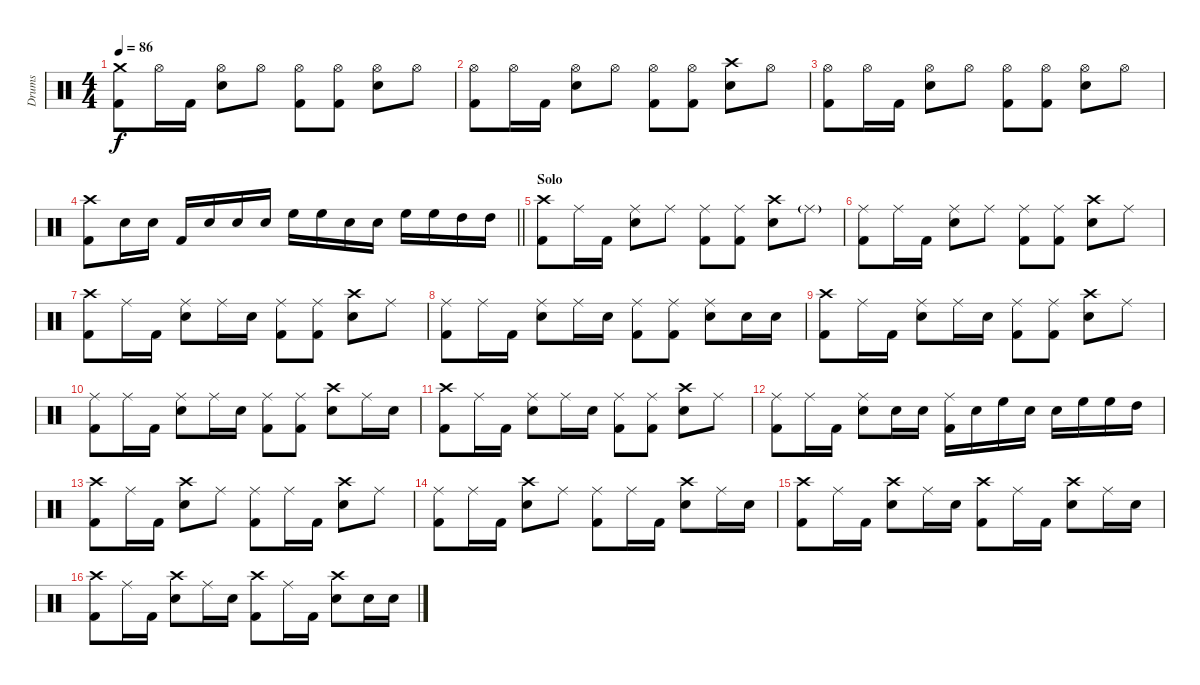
\track ("Drums" "Drums") {instrument percussion}
\staff {score}
\articulation defaults
\ts (4 4)
\tempo 86
\clef neutral
\ks c
("Crash medium (hit)" "Kick (hit) 2").8{dy f} "Hi-Hat (open)".16 "Kick (hit) 2".16 ("Hi-Hat (open)" "Snare (hit) 2").8 "Hi-Hat (open)".8 ("Hi-Hat (open)" "Kick (hit) 2").8 ("Hi-Hat (open)" "Kick (hit) 2").8 ("Hi-Hat (open)" "Snare (hit) 2").8 "Hi-Hat (open)".8 |
("Hi-Hat (open)" "Kick (hit) 2").8 "Hi-Hat (open)".16 "Kick (hit) 2".16 ("Hi-Hat (open)" "Snare (hit) 2").8 "Hi-Hat (open)".8 ("Hi-Hat (open)" "Kick (hit) 2").8 ("Hi-Hat (open)" "Kick (hit) 2").8 ("Crash high (hit)" "Snare (hit) 2").8 "Hi-Hat (open)".8 |
("Hi-Hat (open)" "Kick (hit) 2").8 "Hi-Hat (open)".16 "Kick (hit) 2".16 ("Hi-Hat (open)" "Snare (hit) 2").8 "Hi-Hat (open)".8 ("Hi-Hat (open)" "Kick (hit) 2").8 ("Hi-Hat (open)" "Kick (hit) 2").8 ("Hi-Hat (open)" "Snare (hit) 2").8 "Hi-Hat (open)".8 |
\barLineRight lightlight
("Crash high (hit)" "Kick (hit) 2").8 "Snare (hit) 2".16 "Snare (hit) 2".16 "Kick (hit) 2".16 "Snare (hit) 2".16 "Snare (hit) 2".16 "Snare (hit) 2".16 "High Floor Tom (hit)".16 "High Floor Tom (hit)".16 "Snare (hit) 2".16 "Snare (hit) 2".16 "High Floor Tom (hit)".16 "High Floor Tom (hit)".16 "High Tom (hit)".16 "High Tom (hit)".16 |
\section ("" "Solo")
("Crash high (hit)" "Kick (hit) 2").8 "Ride (middle)".16 "Kick (hit) 2".16 ("Ride (middle)" "Snare (hit) 2").8 "Ride (middle)".8 ("Ride (middle)" "Kick (hit) 2").8 ("Ride (middle)" "Kick (hit) 2").8 ("Crash high (hit)" "Snare (hit) 2").8 "Ride (middle)"{g}.8 |
("Ride (middle)" "Kick (hit) 2").8 "Ride (middle)".16 "Kick (hit) 2".16 ("Ride (middle)" "Snare (hit) 2").8 "Ride (middle)".8 ("Ride (middle)" "Kick (hit) 2").8 ("Ride (middle)" "Kick (hit) 2").8 ("Crash high (hit)" "Snare (hit) 2").8 "Ride (middle)".8 |
("Crash high (hit)" "Kick (hit) 2").8 "Ride (middle)".16 "Kick (hit) 2".16 ("Ride (middle)" "Snare (hit) 2").8 "Ride (middle)".16 "Snare (hit) 2".16 ("Ride (middle)" "Kick (hit) 2").8 ("Ride (middle)" "Kick (hit) 2").8 ("Crash high (hit)" "Snare (hit) 2").8 "Ride (middle)".8 |
("Ride (middle)" "Kick (hit) 2").8 "Ride (middle)".16 "Kick (hit) 2".16 ("Ride (middle)" "Snare (hit) 2").8 "Ride (middle)".16 "Snare (hit) 2".16 ("Ride (middle)" "Kick (hit) 2").8 ("Ride (middle)" "Kick (hit) 2").8 ("Ride (middle)" "Snare (hit) 2").8 "Snare (hit) 2".16 "Snare (hit) 2".16 |
("Crash high (hit)" "Kick (hit) 2").8 "Ride (middle)".16 "Kick (hit) 2".16 ("Ride (middle)" "Snare (hit) 2").8 "Ride (middle)".16 "Snare (hit) 2".16 ("Ride (middle)" "Kick (hit) 2").8 ("Ride (middle)" "Kick (hit) 2").8 ("Crash high (hit)" "Snare (hit) 2").8 "Ride (middle)".8 |
("Ride (middle)" "Kick (hit) 2").8 "Ride (middle)".16 "Kick (hit) 2".16 ("Ride (middle)" "Snare (hit) 2").8 "Ride (middle)".16 "Snare (hit) 2".16 ("Ride (middle)" "Kick (hit) 2").8 ("Ride (middle)" "Kick (hit) 2").8 ("Crash high (hit)" "Snare (hit) 2").8 "Ride (middle)".16 "Snare (hit) 2".16 |
("Crash high (hit)" "Kick (hit) 2").8 "Ride (middle)".16 "Kick (hit) 2".16 ("Ride (middle)" "Snare (hit) 2").8 "Ride (middle)".16 "Snare (hit) 2".16 ("Ride (middle)" "Kick (hit) 2").8 ("Ride (middle)" "Kick (hit) 2").8 ("Crash high (hit)" "Snare (hit) 2").8 "Ride (middle)".8 |
("Ride (middle)" "Kick (hit) 2").8 "Ride (middle)".16 "Kick (hit) 2".16 ("Ride (middle)" "Snare (hit) 2").8 "Snare (hit) 2".16 "Snare (hit) 2".16 ("Ride (middle)" "Kick (hit) 2").16 "Snare (hit) 2".16 "High Floor Tom (hit)".16 "Snare (hit) 2".16 "Snare (hit) 2".16 "High Floor Tom (hit)".16 "High Floor Tom (hit)".16 "High Tom (hit)".16 |
("Crash high (hit)" "Kick (hit) 2").8 "Ride (middle)".16 "Kick (hit) 2".16 ("Crash high (hit)" "Snare (hit) 2").8 "Ride (middle)".8 ("Ride (middle)" "Kick (hit) 2").8 "Ride (middle)".16 "Kick (hit) 2".16 ("Crash high (hit)" "Snare (hit) 2").8 "Ride (middle)".8 |
("Ride (middle)" "Kick (hit) 2").8 "Ride (middle)".16 "Kick (hit) 2".16 ("Crash high (hit)" "Snare (hit) 2").8 "Ride (middle)".8 ("Ride (middle)" "Kick (hit) 2").8 "Ride (middle)".16 "Kick (hit) 2".16 ("Crash high (hit)" "Snare (hit) 2").8 "Ride (middle)".16 "Snare (hit) 2".16 |
("Crash high (hit)" "Kick (hit) 2").8 "Ride (middle)".16 "Kick (hit) 2".16 ("Crash high (hit)" "Snare (hit) 2").8 "Ride (middle)".16 "Snare (hit) 2".16 ("Crash high (hit)" "Kick (hit) 2").8 "Ride (middle)".16 "Kick (hit) 2".16 ("Crash high (hit)" "Snare (hit) 2").8 "Ride (middle)".16 "Snare (hit) 2".16 |
("Crash high (hit)" "Kick (hit) 2").8 "Ride (middle)".16 "Kick (hit) 2".16 ("Crash high (hit)" "Snare (hit) 2").8 "Ride (middle)".16 "Snare (hit) 2".16 ("Crash high (hit)" "Kick (hit) 2").8 "Ride (middle)".16 "Kick (hit) 2".16 ("Crash high (hit)" "Snare (hit) 2").8 "Snare (hit) 2".16 "Snare (hit) 2".16
